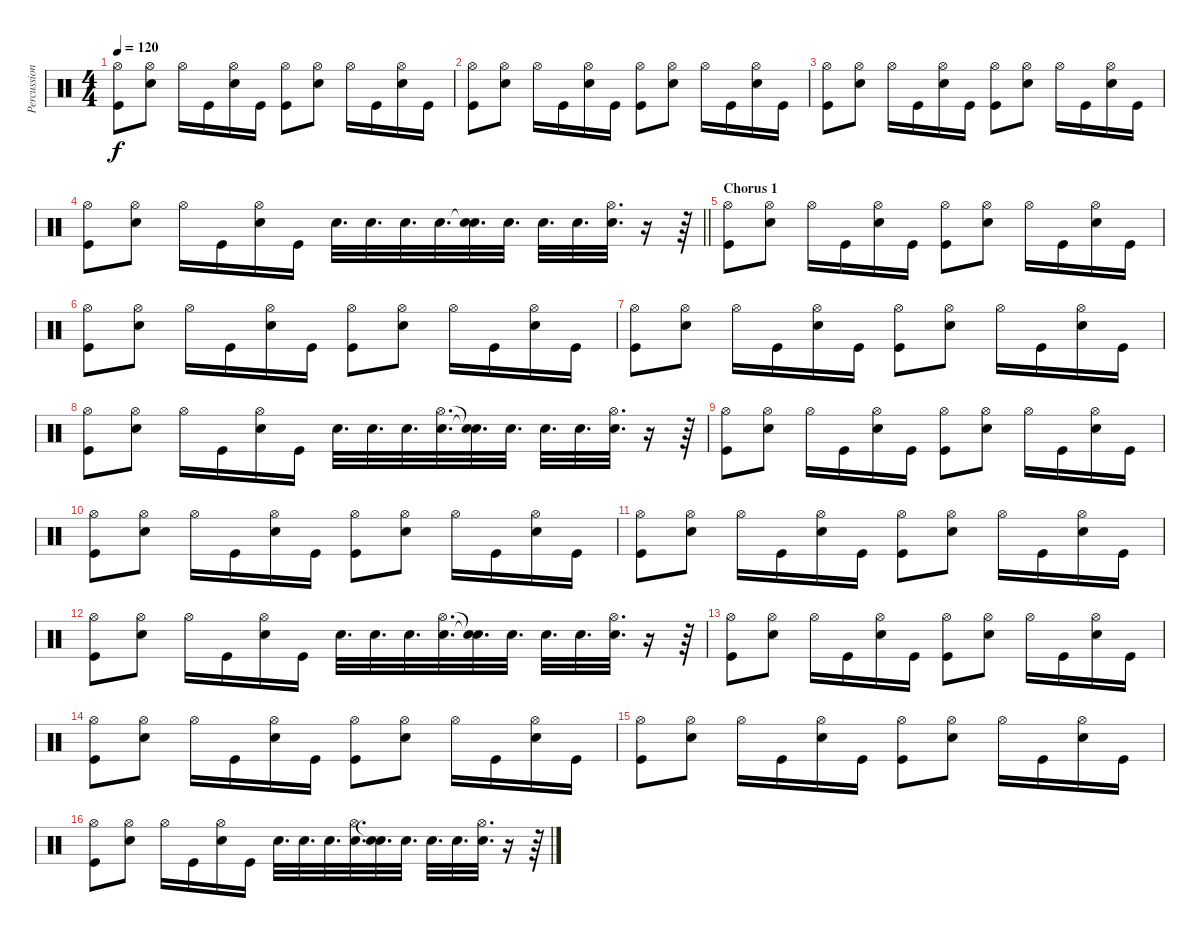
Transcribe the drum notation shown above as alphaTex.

\track ("Percussion" "Percussion") {instrument percussion}
\staff {score}
\articulation defaults
\ts (4 4)
\tempo 120
\clef neutral
\ks c
("Hi-Hat (open)" "Kick (hit)").8{dy f} ("Hi-Hat (open)" "Electric Snare (hit)").8 "Hi-Hat (open)".16 "Kick (hit)".16 ("Hi-Hat (open)" "Electric Snare (hit)").16 "Kick (hit)".16 ("Hi-Hat (open)" "Kick (hit)").8 ("Hi-Hat (open)" "Electric Snare (hit)").8 "Hi-Hat (open)".16 "Kick (hit)".16 ("Hi-Hat (open)" "Electric Snare (hit)").16 "Kick (hit)".16 |
("Hi-Hat (open)" "Kick (hit)").8 ("Hi-Hat (open)" "Electric Snare (hit)").8 "Hi-Hat (open)".16 "Kick (hit)".16 ("Hi-Hat (open)" "Electric Snare (hit)").16 "Kick (hit)".16 ("Hi-Hat (open)" "Kick (hit)").8 ("Hi-Hat (open)" "Electric Snare (hit)").8 "Hi-Hat (open)".16 "Kick (hit)".16 ("Hi-Hat (open)" "Electric Snare (hit)").16 "Kick (hit)".16 |
("Hi-Hat (open)" "Kick (hit)").8 ("Hi-Hat (open)" "Electric Snare (hit)").8 "Hi-Hat (open)".16 "Kick (hit)".16 ("Hi-Hat (open)" "Electric Snare (hit)").16 "Kick (hit)".16 ("Hi-Hat (open)" "Kick (hit)").8 ("Hi-Hat (open)" "Electric Snare (hit)").8 "Hi-Hat (open)".16 "Kick (hit)".16 ("Hi-Hat (open)" "Electric Snare (hit)").16 "Kick (hit)".16 |
\barLineRight lightlight
("Hi-Hat (open)" "Kick (hit)").8 ("Hi-Hat (open)" "Electric Snare (hit)").8 "Hi-Hat (open)".16 "Kick (hit)".16 ("Hi-Hat (open)" "Electric Snare (hit)").16 "Kick (hit)".16 "Electric Snare (hit)".32{d} "Electric Snare (hit)".32{d} "Electric Snare (hit)".32{d} "Electric Snare (hit)".32{d} ("Snare (hit)"{t} "Electric Snare (hit)").32{d} "Electric Snare (hit)".32{d} "Electric Snare (hit)".32{d} "Electric Snare (hit)".32{d} ("Hi-Hat (open)" "Electric Snare (hit)").32{d} r.16 r.64 |
\section ("" "Chorus 1")
("Hi-Hat (open)" "Kick (hit)").8 ("Hi-Hat (open)" "Electric Snare (hit)").8 "Hi-Hat (open)".16 "Kick (hit)".16 ("Hi-Hat (open)" "Electric Snare (hit)").16 "Kick (hit)".16 ("Hi-Hat (open)" "Kick (hit)").8 ("Hi-Hat (open)" "Electric Snare (hit)").8 "Hi-Hat (open)".16 "Kick (hit)".16 ("Hi-Hat (open)" "Electric Snare (hit)").16 "Kick (hit)".16 |
("Hi-Hat (open)" "Kick (hit)").8 ("Hi-Hat (open)" "Electric Snare (hit)").8 "Hi-Hat (open)".16 "Kick (hit)".16 ("Hi-Hat (open)" "Electric Snare (hit)").16 "Kick (hit)".16 ("Hi-Hat (open)" "Kick (hit)").8 ("Hi-Hat (open)" "Electric Snare (hit)").8 "Hi-Hat (open)".16 "Kick (hit)".16 ("Hi-Hat (open)" "Electric Snare (hit)").16 "Kick (hit)".16 |
("Hi-Hat (open)" "Kick (hit)").8 ("Hi-Hat (open)" "Electric Snare (hit)").8 "Hi-Hat (open)".16 "Kick (hit)".16 ("Hi-Hat (open)" "Electric Snare (hit)").16 "Kick (hit)".16 ("Hi-Hat (open)" "Kick (hit)").8 ("Hi-Hat (open)" "Electric Snare (hit)").8 "Hi-Hat (open)".16 "Kick (hit)".16 ("Hi-Hat (open)" "Electric Snare (hit)").16 "Kick (hit)".16 |
("Hi-Hat (open)" "Kick (hit)").8 ("Hi-Hat (open)" "Electric Snare (hit)").8 "Hi-Hat (open)".16 "Kick (hit)".16 ("Hi-Hat (open)" "Electric Snare (hit)").16 "Kick (hit)".16 "Electric Snare (hit)".32{d} "Electric Snare (hit)".32{d} "Electric Snare (hit)".32{d} ("Hi-Hat (open)" "Electric Snare (hit)").32{d} ("Snare (hit)"{t} "Snare (hit)"{t}).32{d} "Electric Snare (hit)".32{d} "Electric Snare (hit)".32{d} "Electric Snare (hit)".32{d} ("Hi-Hat (open)" "Electric Snare (hit)").32{d} r.16 r.64 |
("Hi-Hat (open)" "Kick (hit)").8 ("Hi-Hat (open)" "Electric Snare (hit)").8 "Hi-Hat (open)".16 "Kick (hit)".16 ("Hi-Hat (open)" "Electric Snare (hit)").16 "Kick (hit)".16 ("Hi-Hat (open)" "Kick (hit)").8 ("Hi-Hat (open)" "Electric Snare (hit)").8 "Hi-Hat (open)".16 "Kick (hit)".16 ("Hi-Hat (open)" "Electric Snare (hit)").16 "Kick (hit)".16 |
("Hi-Hat (open)" "Kick (hit)").8 ("Hi-Hat (open)" "Electric Snare (hit)").8 "Hi-Hat (open)".16 "Kick (hit)".16 ("Hi-Hat (open)" "Electric Snare (hit)").16 "Kick (hit)".16 ("Hi-Hat (open)" "Kick (hit)").8 ("Hi-Hat (open)" "Electric Snare (hit)").8 "Hi-Hat (open)".16 "Kick (hit)".16 ("Hi-Hat (open)" "Electric Snare (hit)").16 "Kick (hit)".16 |
("Hi-Hat (open)" "Kick (hit)").8 ("Hi-Hat (open)" "Electric Snare (hit)").8 "Hi-Hat (open)".16 "Kick (hit)".16 ("Hi-Hat (open)" "Electric Snare (hit)").16 "Kick (hit)".16 ("Hi-Hat (open)" "Kick (hit)").8 ("Hi-Hat (open)" "Electric Snare (hit)").8 "Hi-Hat (open)".16 "Kick (hit)".16 ("Hi-Hat (open)" "Electric Snare (hit)").16 "Kick (hit)".16 |
("Hi-Hat (open)" "Kick (hit)").8 ("Hi-Hat (open)" "Electric Snare (hit)").8 "Hi-Hat (open)".16 "Kick (hit)".16 ("Hi-Hat (open)" "Electric Snare (hit)").16 "Kick (hit)".16 "Electric Snare (hit)".32{d} "Electric Snare (hit)".32{d} "Electric Snare (hit)".32{d} ("Hi-Hat (open)" "Electric Snare (hit)").32{d} ("Snare (hit)"{t} "Snare (hit)"{t}).32{d} "Electric Snare (hit)".32{d} "Electric Snare (hit)".32{d} "Electric Snare (hit)".32{d} ("Hi-Hat (open)" "Electric Snare (hit)").32{d} r.16 r.64 |
("Hi-Hat (open)" "Kick (hit)").8 ("Hi-Hat (open)" "Electric Snare (hit)").8 "Hi-Hat (open)".16 "Kick (hit)".16 ("Hi-Hat (open)" "Electric Snare (hit)").16 "Kick (hit)".16 ("Hi-Hat (open)" "Kick (hit)").8 ("Hi-Hat (open)" "Electric Snare (hit)").8 "Hi-Hat (open)".16 "Kick (hit)".16 ("Hi-Hat (open)" "Electric Snare (hit)").16 "Kick (hit)".16 |
("Hi-Hat (open)" "Kick (hit)").8 ("Hi-Hat (open)" "Electric Snare (hit)").8 "Hi-Hat (open)".16 "Kick (hit)".16 ("Hi-Hat (open)" "Electric Snare (hit)").16 "Kick (hit)".16 ("Hi-Hat (open)" "Kick (hit)").8 ("Hi-Hat (open)" "Electric Snare (hit)").8 "Hi-Hat (open)".16 "Kick (hit)".16 ("Hi-Hat (open)" "Electric Snare (hit)").16 "Kick (hit)".16 |
("Hi-Hat (open)" "Kick (hit)").8 ("Hi-Hat (open)" "Electric Snare (hit)").8 "Hi-Hat (open)".16 "Kick (hit)".16 ("Hi-Hat (open)" "Electric Snare (hit)").16 "Kick (hit)".16 ("Hi-Hat (open)" "Kick (hit)").8 ("Hi-Hat (open)" "Electric Snare (hit)").8 "Hi-Hat (open)".16 "Kick (hit)".16 ("Hi-Hat (open)" "Electric Snare (hit)").16 "Kick (hit)".16 |
("Hi-Hat (open)" "Kick (hit)").8 ("Hi-Hat (open)" "Electric Snare (hit)").8 "Hi-Hat (open)".16 "Kick (hit)".16 ("Hi-Hat (open)" "Electric Snare (hit)").16 "Kick (hit)".16 "Electric Snare (hit)".32{d} "Electric Snare (hit)".32{d} "Electric Snare (hit)".32{d} ("Hi-Hat (open)" "Electric Snare (hit)").32{d} ("Snare (hit)"{t} "Snare (hit)"{t}).32{d} "Electric Snare (hit)".32{d} "Electric Snare (hit)".32{d} "Electric Snare (hit)".32{d} ("Hi-Hat (open)" "Electric Snare (hit)").32{d} r.16 r.64
